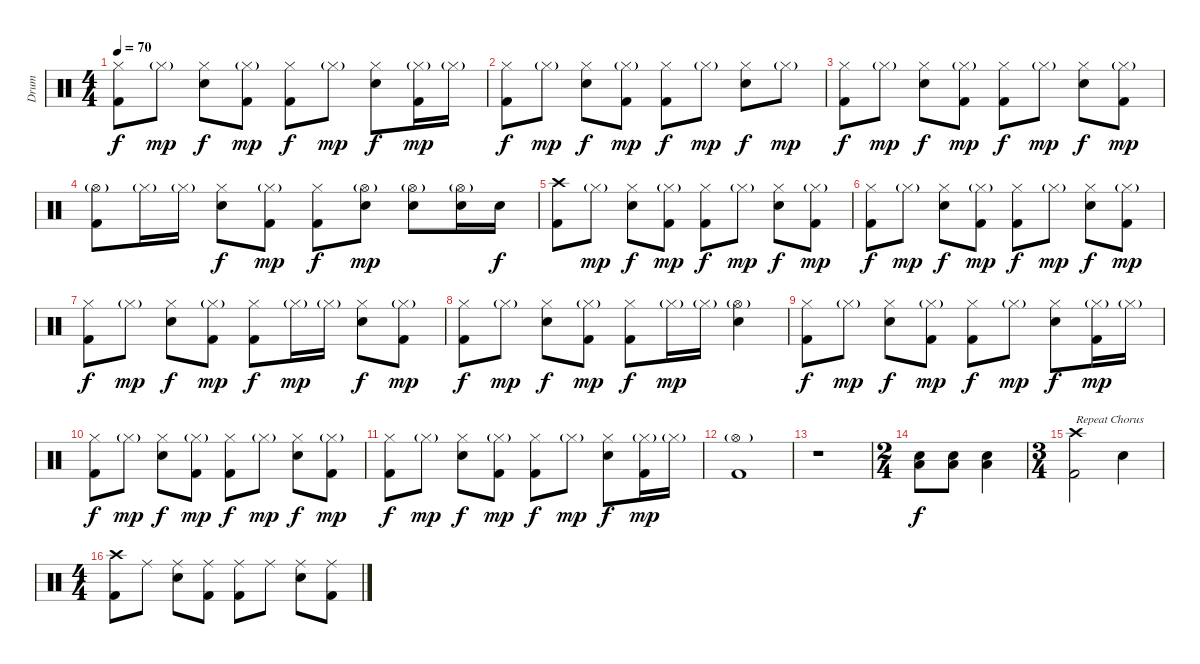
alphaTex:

\track ("Drum" "Drum") {instrument percussion}
\staff {score}
\articulation defaults
\ts (4 4)
\tempo 70
\clef neutral
\ks c
("Hi-Hat (closed)" "Kick (hit) 2").8{dy f} "Hi-Hat (closed)"{g}.8{dy mp} ("Hi-Hat (closed)" "Snare (hit) 2").8{dy f} ("Hi-Hat (closed)"{g} "Kick (hit) 2").8{dy mp} ("Hi-Hat (closed)" "Kick (hit) 2").8{dy f} "Hi-Hat (closed)"{g}.8{dy mp} ("Hi-Hat (closed)" "Snare (hit) 2").8{dy f} ("Hi-Hat (closed)"{g} "Kick (hit) 2").16{dy mp} "Hi-Hat (closed)"{g}.16 |
("Hi-Hat (closed)" "Kick (hit) 2").8{dy f} "Hi-Hat (closed)"{g}.8{dy mp} ("Hi-Hat (closed)" "Snare (hit) 2").8{dy f} ("Hi-Hat (closed)"{g} "Kick (hit) 2").8{dy mp} ("Hi-Hat (closed)" "Kick (hit) 2").8{dy f} "Hi-Hat (closed)"{g}.8{dy mp} ("Hi-Hat (closed)" "Snare (hit) 2").8{dy f} "Hi-Hat (closed)"{g}.8{dy mp} |
("Hi-Hat (closed)" "Kick (hit) 2").8{dy f} "Hi-Hat (closed)"{g}.8{dy mp} ("Hi-Hat (closed)" "Snare (hit) 2").8{dy f} ("Hi-Hat (closed)"{g} "Kick (hit) 2").8{dy mp} ("Hi-Hat (closed)" "Kick (hit) 2").8{dy f} "Hi-Hat (closed)"{g}.8{dy mp} ("Hi-Hat (closed)" "Snare (hit) 2").8{dy f} ("Hi-Hat (closed)"{g} "Kick (hit) 2").8{dy mp} |
("Hi-Hat (open)"{g} "Kick (hit) 2").8 "Hi-Hat (closed)"{g}.16 "Hi-Hat (closed)"{g}.16 ("Hi-Hat (closed)" "Snare (hit) 2").8{dy f} ("Hi-Hat (closed)"{g} "Kick (hit) 2").8{dy mp} ("Hi-Hat (closed)" "Kick (hit) 2").8{dy f} ("Hi-Hat (open)"{g} "Snare (hit) 2").8{dy mp} ("Hi-Hat (open)"{g} "Snare (hit) 2").8 ("Hi-Hat (open)"{g} "Snare (hit) 2").16 "Snare (hit) 2".16{dy f} |
("Crash high (hit)" "Kick (hit) 2").8 "Hi-Hat (closed)"{g}.8{dy mp} ("Hi-Hat (closed)" "Snare (hit) 2").8{dy f} ("Hi-Hat (closed)"{g} "Kick (hit) 2").8{dy mp} ("Hi-Hat (closed)" "Kick (hit) 2").8{dy f} "Hi-Hat (closed)"{g}.8{dy mp} ("Hi-Hat (closed)" "Snare (hit) 2").8{dy f} ("Hi-Hat (closed)"{g} "Kick (hit) 2").8{dy mp} |
("Hi-Hat (closed)" "Kick (hit) 2").8{dy f} "Hi-Hat (closed)"{g}.8{dy mp} ("Hi-Hat (closed)" "Snare (hit) 2").8{dy f} ("Hi-Hat (closed)"{g} "Kick (hit) 2").8{dy mp} ("Hi-Hat (closed)" "Kick (hit) 2").8{dy f} "Hi-Hat (closed)"{g}.8{dy mp} ("Hi-Hat (closed)" "Snare (hit) 2").8{dy f} ("Hi-Hat (closed)"{g} "Kick (hit) 2").8{dy mp} |
("Hi-Hat (closed)" "Kick (hit) 2").8{dy f} "Hi-Hat (closed)"{g}.8{dy mp} ("Hi-Hat (closed)" "Snare (hit) 2").8{dy f} ("Hi-Hat (closed)"{g} "Kick (hit) 2").8{dy mp} ("Hi-Hat (closed)" "Kick (hit) 2").8{dy f} "Hi-Hat (closed)"{g}.16{dy mp} "Hi-Hat (closed)"{g}.16 ("Hi-Hat (closed)" "Snare (hit) 2").8{dy f} ("Hi-Hat (closed)"{g} "Kick (hit) 2").8{dy mp} |
("Hi-Hat (closed)" "Kick (hit) 2").8{dy f} "Hi-Hat (closed)"{g}.8{dy mp} ("Hi-Hat (closed)" "Snare (hit) 2").8{dy f} ("Hi-Hat (closed)"{g} "Kick (hit) 2").8{dy mp} ("Hi-Hat (closed)" "Kick (hit) 2").8{dy f} "Hi-Hat (closed)"{g}.16{dy mp} "Hi-Hat (closed)"{g}.16 ("Hi-Hat (open)"{g} "Snare (hit) 2").4 |
("Hi-Hat (closed)" "Kick (hit) 2").8{dy f} "Hi-Hat (closed)"{g}.8{dy mp} ("Hi-Hat (closed)" "Snare (hit) 2").8{dy f} ("Hi-Hat (closed)"{g} "Kick (hit) 2").8{dy mp} ("Hi-Hat (closed)" "Kick (hit) 2").8{dy f} "Hi-Hat (closed)"{g}.8{dy mp} ("Hi-Hat (closed)" "Snare (hit) 2").8{dy f} ("Hi-Hat (closed)"{g} "Kick (hit) 2").16{dy mp} "Hi-Hat (closed)"{g}.16 |
("Hi-Hat (closed)" "Kick (hit) 2").8{dy f} "Hi-Hat (closed)"{g}.8{dy mp} ("Hi-Hat (closed)" "Snare (hit) 2").8{dy f} ("Hi-Hat (closed)"{g} "Kick (hit) 2").8{dy mp} ("Hi-Hat (closed)" "Kick (hit) 2").8{dy f} "Hi-Hat (closed)"{g}.8{dy mp} ("Hi-Hat (closed)" "Snare (hit) 2").8{dy f} ("Hi-Hat (closed)"{g} "Kick (hit) 2").8{dy mp} |
("Hi-Hat (closed)" "Kick (hit) 2").8{dy f} "Hi-Hat (closed)"{g}.8{dy mp} ("Hi-Hat (closed)" "Snare (hit) 2").8{dy f} ("Hi-Hat (closed)"{g} "Kick (hit) 2").8{dy mp} ("Hi-Hat (closed)" "Kick (hit) 2").8{dy f} "Hi-Hat (closed)"{g}.8{dy mp} ("Hi-Hat (closed)" "Snare (hit) 2").8{dy f} ("Hi-Hat (closed)"{g} "Kick (hit) 2").16{dy mp} "Hi-Hat (closed)"{g}.16 |
("Hi-Hat (open)"{g} "Kick (hit) 2").1 |
r.1 |
\ts (2 4)
("Low Floor Tom (hit)" "Snare (hit) 2").8{dy f} ("Low Floor Tom (hit)" "Snare (hit) 2").8 ("Low Floor Tom (hit)" "Snare (hit) 2").4 |
\ts (3 4)
("Crash high (hit)" "Kick (hit) 2").2{txt "Repeat Chorus"} "Snare (hit) 2".4 |
\ts (4 4)
("Crash high (hit)" "Kick (hit) 2").8 "Ride (middle)".8 ("Ride (middle)" "Snare (hit) 2").8 ("Ride (middle)" "Kick (hit) 2").8 ("Ride (middle)" "Kick (hit) 2").8 "Ride (middle)".8 ("Ride (middle)" "Snare (hit) 2").8 ("Ride (middle)" "Kick (hit) 2").8
